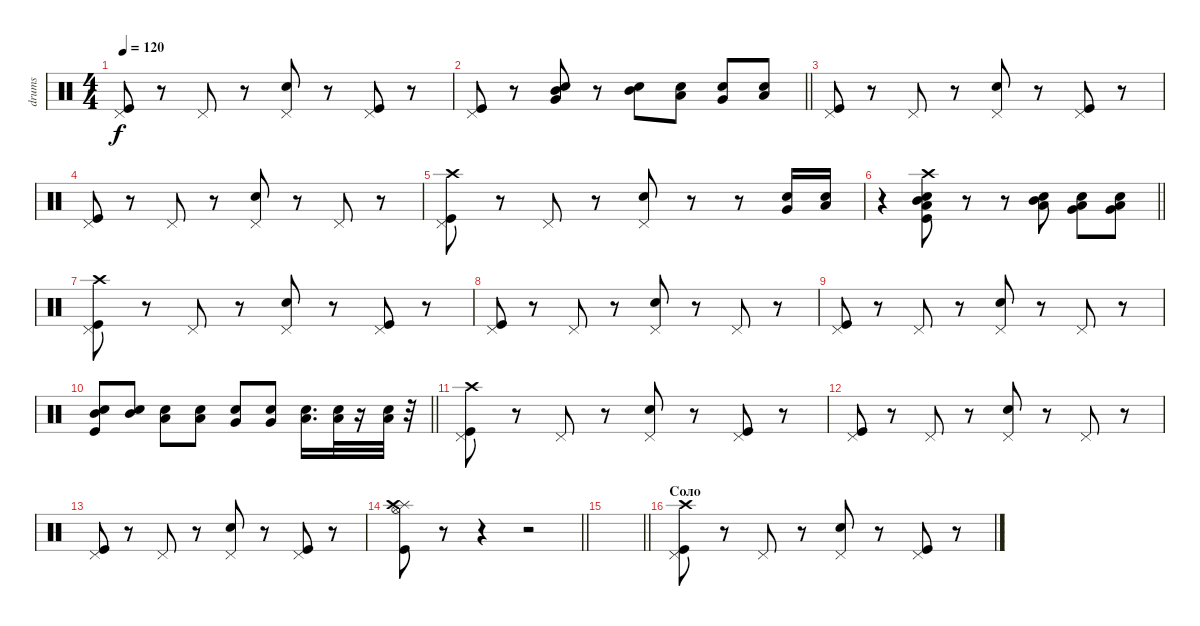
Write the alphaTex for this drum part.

\track ("drums" "drums") {instrument percussion}
\staff {score}
\articulation defaults
\ts (4 4)
\tempo 120
\clef neutral
\ks c
("Kick (hit)" "Pedal Hi-Hat (hit)").8{dy f} r.8 "Pedal Hi-Hat (hit)".8 r.8 ("Snare (hit) 2" "Pedal Hi-Hat (hit)").8 r.8 ("Kick (hit)" "Pedal Hi-Hat (hit)").8 r.8 |
\barLineRight lightlight
("Kick (hit)" "Pedal Hi-Hat (hit)").8 r.8 ("Snare (hit) 2" "Mid Tom (hit)" "Very Low Tom (hit)").8 r.8 ("Snare (hit) 2" "Mid Tom (hit)").8 ("Low Tom (hit)" "Snare (hit) 2").8 ("Snare (hit) 2" "Very Low Tom (hit)").8 ("Snare (hit) 2" "Low Floor Tom (hit)").8 |
("Kick (hit)" "Pedal Hi-Hat (hit)").8 r.8 "Pedal Hi-Hat (hit)".8 r.8 ("Snare (hit) 2" "Pedal Hi-Hat (hit)").8 r.8 ("Kick (hit)" "Pedal Hi-Hat (hit)").8 r.8 |
("Kick (hit)" "Pedal Hi-Hat (hit)").8 r.8 "Pedal Hi-Hat (hit)".8 r.8 ("Snare (hit) 2" "Pedal Hi-Hat (hit)").8 r.8 "Pedal Hi-Hat (hit)".8 r.8 |
("Kick (hit)" "Crash high (hit)" "Pedal Hi-Hat (hit)").8 r.8 "Pedal Hi-Hat (hit)".8 r.8 ("Snare (hit) 2" "Pedal Hi-Hat (hit)").8 r.8 r.8 ("Snare (hit) 2" "Very Low Tom (hit)").16 ("Snare (hit) 2" "Low Floor Tom (hit)").16 |
\barLineRight lightlight
r.4 ("Snare (hit) 2" "Kick (hit)" "Crash high (hit)" "Mid Tom (hit)" "Low Tom (hit)").8 r.8 r.8 ("Snare (hit) 2" "Mid Tom (hit)" "Low Tom (hit)").8 ("Snare (hit) 2" "Low Tom (hit)" "Very Low Tom (hit)").8 ("Snare (hit) 2" "Low Floor Tom (hit)" "Very Low Tom (hit)").8 |
("Kick (hit)" "Crash high (hit)" "Pedal Hi-Hat (hit)").8 r.8 "Pedal Hi-Hat (hit)".8 r.8 ("Snare (hit) 2" "Pedal Hi-Hat (hit)").8 r.8 ("Kick (hit)" "Pedal Hi-Hat (hit)").8 r.8 |
("Kick (hit)" "Pedal Hi-Hat (hit)").8 r.8 "Pedal Hi-Hat (hit)".8 r.8 ("Snare (hit) 2" "Pedal Hi-Hat (hit)").8 r.8 "Pedal Hi-Hat (hit)".8 r.8 |
("Kick (hit)" "Pedal Hi-Hat (hit)").8 r.8 "Pedal Hi-Hat (hit)".8 r.8 ("Snare (hit) 2" "Pedal Hi-Hat (hit)").8 r.8 "Pedal Hi-Hat (hit)".8 r.8 |
\barLineRight lightlight
("Kick (hit)" "Snare (hit) 2" "Mid Tom (hit)").8 ("Snare (hit) 2" "Mid Tom (hit)").8 ("Snare (hit) 2" "Low Tom (hit)").8 ("Snare (hit) 2" "Low Tom (hit)").8 ("Snare (hit) 2" "Very Low Tom (hit)").8 ("Snare (hit) 2" "Very Low Tom (hit)").8 ("Low Floor Tom (hit)" "Snare (hit) 2").16{d} ("Snare (hit) 2" "Low Floor Tom (hit)").32 r.16 ("Snare (hit) 2" "Low Floor Tom (hit)").32 r.32 |
("Kick (hit)" "Crash high (hit)" "Pedal Hi-Hat (hit)").8 r.8 "Pedal Hi-Hat (hit)".8 r.8 ("Snare (hit) 2" "Pedal Hi-Hat (hit)").8 r.8 ("Kick (hit)" "Pedal Hi-Hat (hit)").8 r.8 |
("Kick (hit)" "Pedal Hi-Hat (hit)").8 r.8 "Pedal Hi-Hat (hit)".8 r.8 ("Snare (hit) 2" "Pedal Hi-Hat (hit)").8 r.8 "Pedal Hi-Hat (hit)".8 r.8 |
("Kick (hit)" "Pedal Hi-Hat (hit)").8 r.8 "Pedal Hi-Hat (hit)".8 r.8 ("Snare (hit) 2" "Pedal Hi-Hat (hit)").8 r.8 ("Kick (hit)" "Pedal Hi-Hat (hit)").8 r.8 |
\barLineRight lightlight
("Kick (hit)" "Splash (hit)" "Hi-Hat (open)" "Crash high (hit)").8 r.8 r.4 r.2 |
\barLineRight lightlight
|
\section ("" "Соло")
("Kick (hit)" "Crash high (hit)" "Pedal Hi-Hat (hit)").8 r.8 "Pedal Hi-Hat (hit)".8 r.8 ("Snare (hit) 2" "Pedal Hi-Hat (hit)").8 r.8 ("Kick (hit)" "Pedal Hi-Hat (hit)").8 r.8
